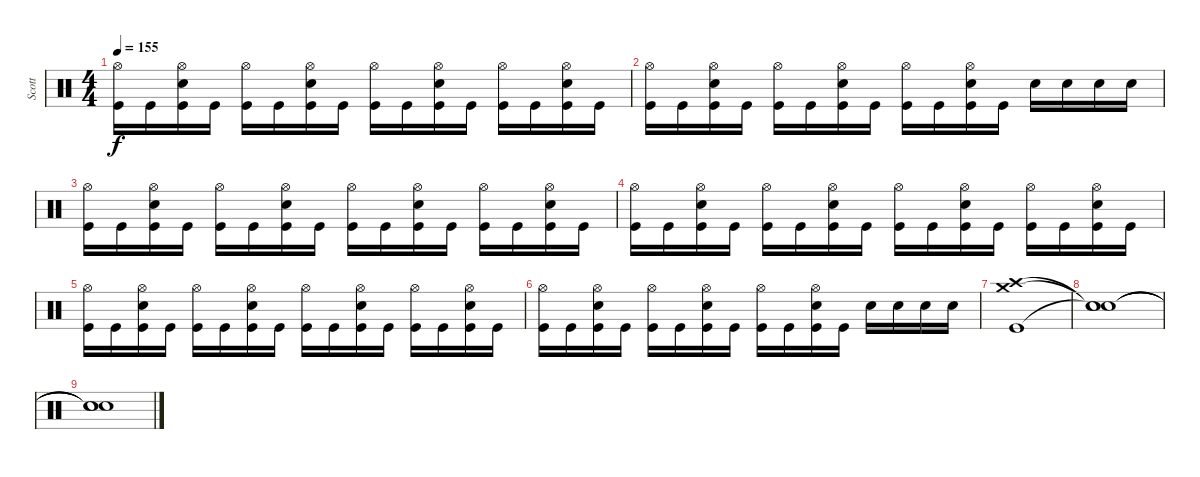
\track ("Scott" "Scott") {instrument percussion}
\staff {score}
\articulation defaults
\ts (4 4)
\tempo 155
\clef neutral
\ks c
("Hi-Hat (open)" "Kick (hit)").16{dy f} "Kick (hit)".16 ("Hi-Hat (open)" "Snare (hit) 2" "Kick (hit)").16 "Kick (hit)".16 ("Hi-Hat (open)" "Kick (hit)").16 "Kick (hit)".16 ("Hi-Hat (open)" "Snare (hit) 2" "Kick (hit)").16 "Kick (hit)".16 ("Hi-Hat (open)" "Kick (hit)").16 "Kick (hit)".16 ("Hi-Hat (open)" "Snare (hit) 2" "Kick (hit)").16 "Kick (hit)".16 ("Hi-Hat (open)" "Kick (hit)").16 "Kick (hit)".16 ("Hi-Hat (open)" "Snare (hit) 2" "Kick (hit)").16 "Kick (hit)".16 |
("Hi-Hat (open)" "Kick (hit)").16 "Kick (hit)".16 ("Hi-Hat (open)" "Snare (hit) 2" "Kick (hit)").16 "Kick (hit)".16 ("Hi-Hat (open)" "Kick (hit)").16 "Kick (hit)".16 ("Hi-Hat (open)" "Snare (hit) 2" "Kick (hit)").16 "Kick (hit)".16 ("Hi-Hat (open)" "Kick (hit)").16 "Kick (hit)".16 ("Hi-Hat (open)" "Snare (hit) 2" "Kick (hit)").16 "Kick (hit)".16 "Snare (hit) 2".16 "Snare (hit) 2".16 "Snare (hit) 2".16 "Snare (hit) 2".16 |
("Hi-Hat (open)" "Kick (hit)").16 "Kick (hit)".16 ("Hi-Hat (open)" "Snare (hit) 2" "Kick (hit)").16 "Kick (hit)".16 ("Hi-Hat (open)" "Kick (hit)").16 "Kick (hit)".16 ("Hi-Hat (open)" "Snare (hit) 2" "Kick (hit)").16 "Kick (hit)".16 ("Hi-Hat (open)" "Kick (hit)").16 "Kick (hit)".16 ("Hi-Hat (open)" "Snare (hit) 2" "Kick (hit)").16 "Kick (hit)".16 ("Hi-Hat (open)" "Kick (hit)").16 "Kick (hit)".16 ("Hi-Hat (open)" "Snare (hit) 2" "Kick (hit)").16 "Kick (hit)".16 |
("Hi-Hat (open)" "Kick (hit)").16 "Kick (hit)".16 ("Hi-Hat (open)" "Snare (hit) 2" "Kick (hit)").16 "Kick (hit)".16 ("Hi-Hat (open)" "Kick (hit)").16 "Kick (hit)".16 ("Hi-Hat (open)" "Snare (hit) 2" "Kick (hit)").16 "Kick (hit)".16 ("Hi-Hat (open)" "Kick (hit)").16 "Kick (hit)".16 ("Hi-Hat (open)" "Snare (hit) 2" "Kick (hit)").16 "Kick (hit)".16 ("Hi-Hat (open)" "Kick (hit)").16 "Kick (hit)".16 ("Hi-Hat (open)" "Snare (hit) 2" "Kick (hit)").16 "Kick (hit)".16 |
("Hi-Hat (open)" "Kick (hit)").16 "Kick (hit)".16 ("Hi-Hat (open)" "Snare (hit) 2" "Kick (hit)").16 "Kick (hit)".16 ("Hi-Hat (open)" "Kick (hit)").16 "Kick (hit)".16 ("Hi-Hat (open)" "Snare (hit) 2" "Kick (hit)").16 "Kick (hit)".16 ("Hi-Hat (open)" "Kick (hit)").16 "Kick (hit)".16 ("Hi-Hat (open)" "Snare (hit) 2" "Kick (hit)").16 "Kick (hit)".16 ("Hi-Hat (open)" "Kick (hit)").16 "Kick (hit)".16 ("Hi-Hat (open)" "Snare (hit) 2" "Kick (hit)").16 "Kick (hit)".16 |
("Hi-Hat (open)" "Kick (hit)").16 "Kick (hit)".16 ("Hi-Hat (open)" "Snare (hit) 2" "Kick (hit)").16 "Kick (hit)".16 ("Hi-Hat (open)" "Kick (hit)").16 "Kick (hit)".16 ("Hi-Hat (open)" "Snare (hit) 2" "Kick (hit)").16 "Kick (hit)".16 ("Hi-Hat (open)" "Kick (hit)").16 "Kick (hit)".16 ("Hi-Hat (open)" "Snare (hit) 2" "Kick (hit)").16 "Kick (hit)".16 "Snare (hit) 2".16 "Snare (hit) 2".16 "Snare (hit) 2".16 "Snare (hit) 2".16 |
("Crash high (hit)" "Crash medium (hit)" "Kick (hit)").1 |
("Snare (hit)"{t} "Snare (hit)"{t} "Snare (hit)"{t}).1 |
("Snare (hit)"{t} "Snare (hit)"{t} "Snare (hit)"{t}).1
